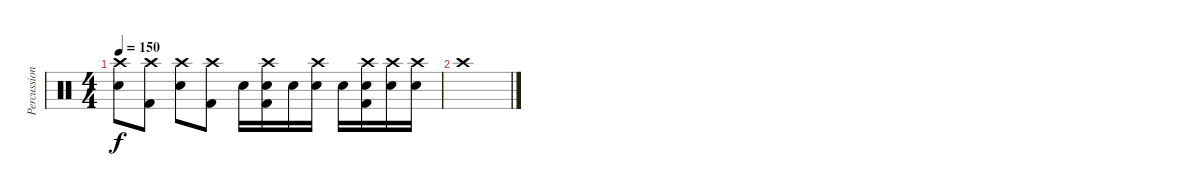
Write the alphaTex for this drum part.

\track ("Percussion" "Percussion") {instrument percussion}
\staff {score}
\articulation defaults
\ts (4 4)
\tempo 150
\clef neutral
\ks c
("Crash high (hit)" "Electric Snare (hit)").8{dy f} ("Crash high (hit)" "Kick (hit) 2").8 ("Crash high (hit)" "Electric Snare (hit)").8 ("Crash high (hit)" "Kick (hit) 2").8 "Electric Snare (hit)".16 ("Crash high (hit)" "Electric Snare (hit)" "Kick (hit) 2").16 "Electric Snare (hit)".16 ("Crash high (hit)" "Electric Snare (hit)").16 "Electric Snare (hit)".16 ("Crash high (hit)" "Electric Snare (hit)" "Kick (hit) 2").16 ("Crash high (hit)" "Electric Snare (hit)").16 ("Crash high (hit)" "Electric Snare (hit)").16 |
"Crash high (hit)".1
